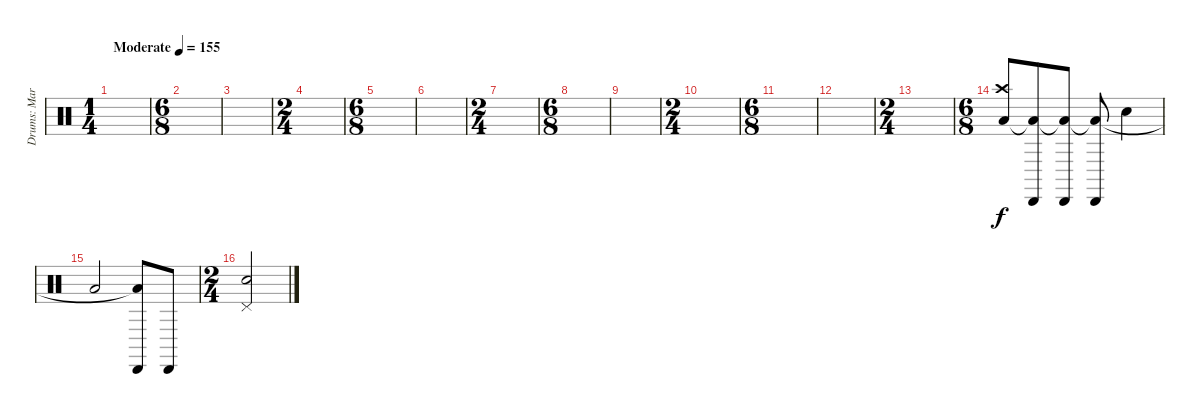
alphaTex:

\track ("Drums: Mark Cross" "Drums: Mar") {instrument percussion}
\staff {score}
\articulation defaults
\ts (1 4)
\tempo (155 "Moderate")
\clef neutral
\ks c
|
\ts (6 8)
|
|
\ts (2 4)
|
\ts (6 8)
|
|
\ts (2 4)
|
\ts (6 8)
|
|
\ts (2 4)
|
\ts (6 8)
|
|
\ts (2 4)
|
\ts (6 8)
("Crash high (hit)" "Low Tom (hit)").8 ("Cabasa (hit)" "Low Tom (hit)"{t}).8 ("Cabasa (hit)" "Low Tom (hit)"{t}).8 ("Cabasa (hit)" "Low Tom (hit)"{t}).8 "Snare (hit) 2".4 |
"Low Tom (hit)".2 ("Cabasa (hit)" "Low Tom (hit)"{t}).8 "Cabasa (hit)".8 |
\ts (2 4)
("Pedal Hi-Hat (hit)" "Snare (hit) 2").2
